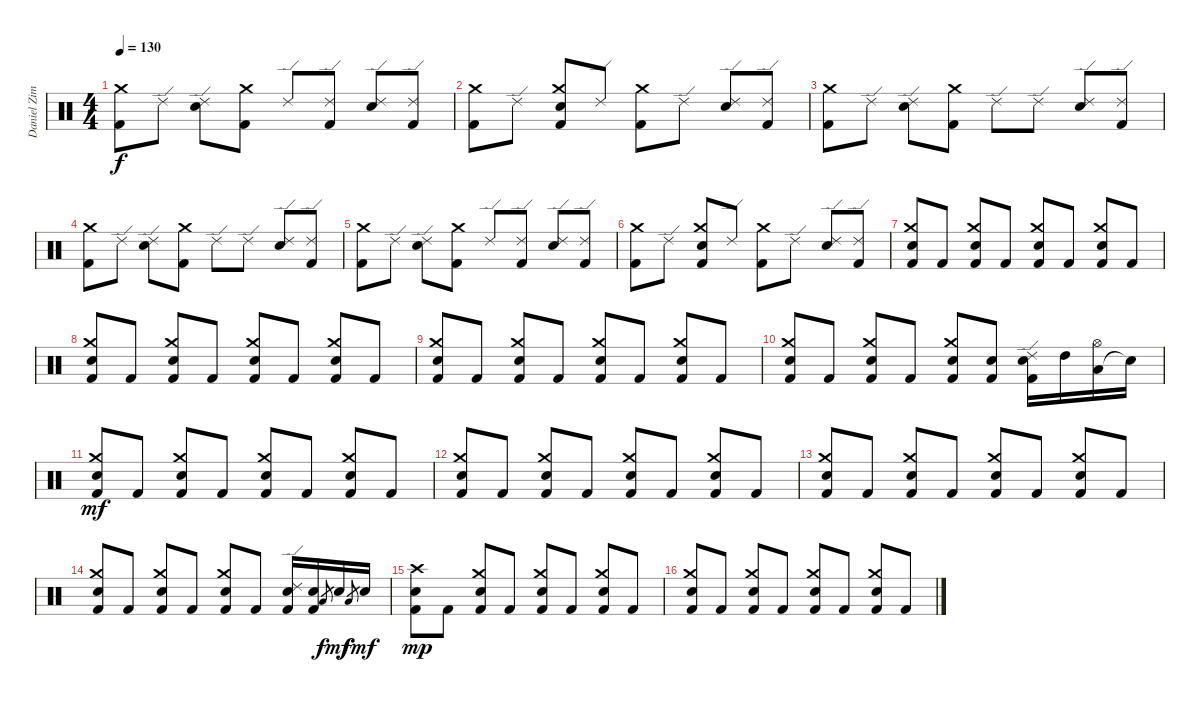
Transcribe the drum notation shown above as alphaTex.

\track ("Daniel Zimmermann" "Daniel Zim") {instrument percussion}
\staff {score}
\articulation defaults
\ts (4 4)
\tempo 130
\clef neutral
\ks c
("Kick (hit) 2" "Crash medium (hit)").8{dy f} "Ride (edge) 2".8 ("Electric Snare (hit)" "Ride (edge) 2").8 ("Kick (hit) 2" "Crash medium (hit)").8 "Ride (edge) 2".8 ("Kick (hit) 2" "Ride (edge) 2").8 ("Electric Snare (hit)" "Ride (edge) 2").8 ("Kick (hit) 2" "Ride (edge) 2").8 |
("Kick (hit) 2" "Crash medium (hit)").8 "Ride (edge) 2".8 ("Kick (hit) 2" "Electric Snare (hit)" "Crash medium (hit)").8 "Ride (edge) 2".8 ("Kick (hit) 2" "Crash medium (hit)").8 "Ride (edge) 2".8 ("Electric Snare (hit)" "Ride (edge) 2").8 ("Kick (hit) 2" "Ride (edge) 2").8 |
("Kick (hit) 2" "Crash medium (hit)").8 "Ride (edge) 2".8 ("Electric Snare (hit)" "Ride (edge) 2").8 ("Kick (hit) 2" "Crash medium (hit)").8 "Ride (edge) 2".8 "Ride (edge) 2".8 ("Electric Snare (hit)" "Ride (edge) 2").8 ("Kick (hit) 2" "Ride (edge) 2").8 |
("Kick (hit) 2" "Crash medium (hit)").8 "Ride (edge) 2".8 ("Electric Snare (hit)" "Ride (edge) 2").8 ("Kick (hit) 2" "Crash medium (hit)").8 "Ride (edge) 2".8 "Ride (edge) 2".8 ("Electric Snare (hit)" "Ride (edge) 2").8 ("Kick (hit) 2" "Ride (edge) 2").8 |
("Kick (hit) 2" "Crash medium (hit)").8 "Ride (edge) 2".8 ("Electric Snare (hit)" "Ride (edge) 2").8 ("Kick (hit) 2" "Crash medium (hit)").8 "Ride (edge) 2".8 ("Kick (hit) 2" "Ride (edge) 2").8 ("Electric Snare (hit)" "Ride (edge) 2").8 ("Kick (hit) 2" "Ride (edge) 2").8 |
("Kick (hit) 2" "Crash medium (hit)").8 "Ride (edge) 2".8 ("Kick (hit) 2" "Electric Snare (hit)" "Crash medium (hit)").8 "Ride (edge) 2".8 ("Kick (hit) 2" "Crash medium (hit)").8 "Ride (edge) 2".8 ("Electric Snare (hit)" "Ride (edge) 2").8 ("Kick (hit) 2" "Ride (edge) 2").8 |
("Kick (hit) 2" "Electric Snare (hit)" "Crash medium (hit)").8 "Kick (hit) 2".8 ("Kick (hit) 2" "Electric Snare (hit)" "Crash medium (hit)").8 "Kick (hit) 2".8 ("Kick (hit) 2" "Electric Snare (hit)" "Crash medium (hit)").8 "Kick (hit) 2".8 ("Kick (hit) 2" "Electric Snare (hit)" "Crash medium (hit)").8 "Kick (hit) 2".8 |
("Kick (hit) 2" "Electric Snare (hit)" "Crash medium (hit)").8 "Kick (hit) 2".8 ("Kick (hit) 2" "Electric Snare (hit)" "Crash medium (hit)").8 "Kick (hit) 2".8 ("Kick (hit) 2" "Electric Snare (hit)" "Crash medium (hit)").8 "Kick (hit) 2".8 ("Kick (hit) 2" "Electric Snare (hit)" "Crash medium (hit)").8 "Kick (hit) 2".8 |
("Kick (hit) 2" "Electric Snare (hit)" "Crash medium (hit)").8 "Kick (hit) 2".8 ("Kick (hit) 2" "Electric Snare (hit)" "Crash medium (hit)").8 "Kick (hit) 2".8 ("Kick (hit) 2" "Electric Snare (hit)" "Crash medium (hit)").8 "Kick (hit) 2".8 ("Kick (hit) 2" "Electric Snare (hit)" "Crash medium (hit)").8 "Kick (hit) 2".8 |
("Kick (hit) 2" "Electric Snare (hit)" "Crash medium (hit)").8 "Kick (hit) 2".8 ("Kick (hit) 2" "Electric Snare (hit)" "Crash medium (hit)").8 "Kick (hit) 2".8 ("Kick (hit) 2" "Electric Snare (hit)" "Crash medium (hit)").8 ("Kick (hit) 2" "Electric Snare (hit)").8 ("Kick (hit) 2" "Electric Snare (hit)" "Ride (edge) 2").16 "High Tom (hit)".16 ("Low Tom (hit)" "Hi-Hat (open)").16 "Snare (hit)"{t}.16 |
("Kick (hit) 2" "Electric Snare (hit)" "Crash medium (hit)").8{dy mf} "Kick (hit) 2".8 ("Kick (hit) 2" "Electric Snare (hit)" "Crash medium (hit)").8 "Kick (hit) 2".8 ("Kick (hit) 2" "Electric Snare (hit)" "Crash medium (hit)").8 "Kick (hit) 2".8 ("Kick (hit) 2" "Electric Snare (hit)" "Crash medium (hit)").8 "Kick (hit) 2".8 |
("Kick (hit) 2" "Electric Snare (hit)" "Crash medium (hit)").8 "Kick (hit) 2".8 ("Kick (hit) 2" "Electric Snare (hit)" "Crash medium (hit)").8 "Kick (hit) 2".8 ("Kick (hit) 2" "Electric Snare (hit)" "Crash medium (hit)").8 "Kick (hit) 2".8 ("Kick (hit) 2" "Electric Snare (hit)" "Crash medium (hit)").8 "Kick (hit) 2".8 |
("Kick (hit) 2" "Electric Snare (hit)" "Crash medium (hit)").8 "Kick (hit) 2".8 ("Kick (hit) 2" "Electric Snare (hit)" "Crash medium (hit)").8 "Kick (hit) 2".8 ("Kick (hit) 2" "Electric Snare (hit)" "Crash medium (hit)").8 "Kick (hit) 2".8 ("Kick (hit) 2" "Electric Snare (hit)" "Crash medium (hit)").8 "Kick (hit) 2".8 |
("Kick (hit) 2" "Electric Snare (hit)" "Crash medium (hit)").8 "Kick (hit) 2".8 ("Kick (hit) 2" "Electric Snare (hit)" "Crash medium (hit)").8 "Kick (hit) 2".8 ("Kick (hit) 2" "Electric Snare (hit)" "Crash medium (hit)").8 "Kick (hit) 2".8 ("Kick (hit) 2" "Electric Snare (hit)" "Ride (edge) 2").16 ("Kick (hit) 2" "Electric Snare (hit)").16 "Low Tom (hit)".8{gr dy f} "Electric Snare (hit)".16{dy mf} "Low Tom (hit)".8{gr dy f} "Electric Snare (hit)".16{dy mf} |
("Kick (hit) 2" "Electric Snare (hit)" "Crash high (hit)").8{dy mp} "Kick (hit) 2".8 ("Kick (hit) 2" "Electric Snare (hit)" "Crash medium (hit)").8 "Kick (hit) 2".8 ("Kick (hit) 2" "Electric Snare (hit)" "Crash medium (hit)").8 "Kick (hit) 2".8 ("Kick (hit) 2" "Electric Snare (hit)" "Crash medium (hit)").8 "Kick (hit) 2".8 |
("Kick (hit) 2" "Electric Snare (hit)" "Crash medium (hit)").8 "Kick (hit) 2".8 ("Kick (hit) 2" "Electric Snare (hit)" "Crash medium (hit)").8 "Kick (hit) 2".8 ("Kick (hit) 2" "Electric Snare (hit)" "Crash medium (hit)").8 "Kick (hit) 2".8 ("Kick (hit) 2" "Electric Snare (hit)" "Crash medium (hit)").8 "Kick (hit) 2".8
